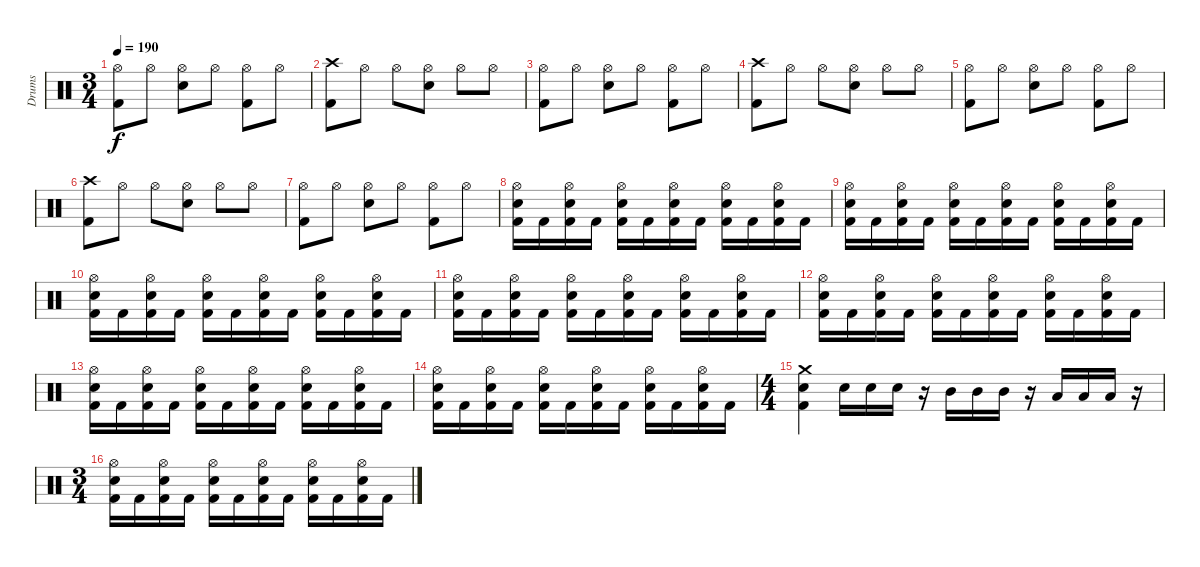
\track ("Drums" "Drums") {instrument percussion}
\staff {score}
\articulation defaults
\ts (3 4)
\tempo 190
\clef neutral
\ks c
("Hi-Hat (open)" "Kick (hit) 2").8{dy f} "Hi-Hat (open)".8 ("Hi-Hat (open)" "Electric Snare (hit)").8 "Hi-Hat (open)".8 ("Hi-Hat (open)" "Kick (hit) 2").8 "Hi-Hat (open)".8 |
("Crash high (hit)" "Kick (hit) 2").8 "Hi-Hat (open)".8 "Hi-Hat (open)".8 ("Hi-Hat (open)" "Electric Snare (hit)").8 "Hi-Hat (open)".8 "Hi-Hat (open)".8 |
("Hi-Hat (open)" "Kick (hit) 2").8 "Hi-Hat (open)".8 ("Hi-Hat (open)" "Electric Snare (hit)").8 "Hi-Hat (open)".8 ("Hi-Hat (open)" "Kick (hit) 2").8 "Hi-Hat (open)".8 |
("Crash high (hit)" "Kick (hit) 2").8 "Hi-Hat (open)".8 "Hi-Hat (open)".8 ("Hi-Hat (open)" "Electric Snare (hit)").8 "Hi-Hat (open)".8 "Hi-Hat (open)".8 |
("Hi-Hat (open)" "Kick (hit) 2").8 "Hi-Hat (open)".8 ("Hi-Hat (open)" "Electric Snare (hit)").8 "Hi-Hat (open)".8 ("Hi-Hat (open)" "Kick (hit) 2").8 "Hi-Hat (open)".8 |
("Crash high (hit)" "Kick (hit) 2").8 "Hi-Hat (open)".8 "Hi-Hat (open)".8 ("Hi-Hat (open)" "Electric Snare (hit)").8 "Hi-Hat (open)".8 "Hi-Hat (open)".8 |
("Hi-Hat (open)" "Kick (hit) 2").8 "Hi-Hat (open)".8 ("Hi-Hat (open)" "Electric Snare (hit)").8 "Hi-Hat (open)".8 ("Hi-Hat (open)" "Kick (hit) 2").8 "Hi-Hat (open)".8 |
("Hi-Hat (open)" "Electric Snare (hit)" "Kick (hit) 2").16 "Kick (hit) 2".16 ("Hi-Hat (open)" "Electric Snare (hit)" "Kick (hit) 2").16 "Kick (hit) 2".16 ("Hi-Hat (open)" "Electric Snare (hit)" "Kick (hit) 2").16 "Kick (hit) 2".16 ("Hi-Hat (open)" "Electric Snare (hit)" "Kick (hit) 2").16 "Kick (hit) 2".16 ("Hi-Hat (open)" "Electric Snare (hit)" "Kick (hit) 2").16 "Kick (hit) 2".16 ("Hi-Hat (open)" "Electric Snare (hit)" "Kick (hit) 2").16 "Kick (hit) 2".16 |
("Hi-Hat (open)" "Electric Snare (hit)" "Kick (hit) 2").16 "Kick (hit) 2".16 ("Hi-Hat (open)" "Electric Snare (hit)" "Kick (hit) 2").16 "Kick (hit) 2".16 ("Hi-Hat (open)" "Electric Snare (hit)" "Kick (hit) 2").16 "Kick (hit) 2".16 ("Hi-Hat (open)" "Electric Snare (hit)" "Kick (hit) 2").16 "Kick (hit) 2".16 ("Hi-Hat (open)" "Electric Snare (hit)" "Kick (hit) 2").16 "Kick (hit) 2".16 ("Hi-Hat (open)" "Electric Snare (hit)" "Kick (hit) 2").16 "Kick (hit) 2".16 |
("Hi-Hat (open)" "Electric Snare (hit)" "Kick (hit) 2").16 "Kick (hit) 2".16 ("Hi-Hat (open)" "Electric Snare (hit)" "Kick (hit) 2").16 "Kick (hit) 2".16 ("Hi-Hat (open)" "Electric Snare (hit)" "Kick (hit) 2").16 "Kick (hit) 2".16 ("Hi-Hat (open)" "Electric Snare (hit)" "Kick (hit) 2").16 "Kick (hit) 2".16 ("Hi-Hat (open)" "Electric Snare (hit)" "Kick (hit) 2").16 "Kick (hit) 2".16 ("Hi-Hat (open)" "Electric Snare (hit)" "Kick (hit) 2").16 "Kick (hit) 2".16 |
("Hi-Hat (open)" "Electric Snare (hit)" "Kick (hit) 2").16 "Kick (hit) 2".16 ("Hi-Hat (open)" "Electric Snare (hit)" "Kick (hit) 2").16 "Kick (hit) 2".16 ("Hi-Hat (open)" "Electric Snare (hit)" "Kick (hit) 2").16 "Kick (hit) 2".16 ("Hi-Hat (open)" "Electric Snare (hit)" "Kick (hit) 2").16 "Kick (hit) 2".16 ("Hi-Hat (open)" "Electric Snare (hit)" "Kick (hit) 2").16 "Kick (hit) 2".16 ("Hi-Hat (open)" "Electric Snare (hit)" "Kick (hit) 2").16 "Kick (hit) 2".16 |
("Hi-Hat (open)" "Electric Snare (hit)" "Kick (hit) 2").16 "Kick (hit) 2".16 ("Hi-Hat (open)" "Electric Snare (hit)" "Kick (hit) 2").16 "Kick (hit) 2".16 ("Hi-Hat (open)" "Electric Snare (hit)" "Kick (hit) 2").16 "Kick (hit) 2".16 ("Hi-Hat (open)" "Electric Snare (hit)" "Kick (hit) 2").16 "Kick (hit) 2".16 ("Hi-Hat (open)" "Electric Snare (hit)" "Kick (hit) 2").16 "Kick (hit) 2".16 ("Hi-Hat (open)" "Electric Snare (hit)" "Kick (hit) 2").16 "Kick (hit) 2".16 |
("Hi-Hat (open)" "Electric Snare (hit)" "Kick (hit) 2").16 "Kick (hit) 2".16 ("Hi-Hat (open)" "Electric Snare (hit)" "Kick (hit) 2").16 "Kick (hit) 2".16 ("Hi-Hat (open)" "Electric Snare (hit)" "Kick (hit) 2").16 "Kick (hit) 2".16 ("Hi-Hat (open)" "Electric Snare (hit)" "Kick (hit) 2").16 "Kick (hit) 2".16 ("Hi-Hat (open)" "Electric Snare (hit)" "Kick (hit) 2").16 "Kick (hit) 2".16 ("Hi-Hat (open)" "Electric Snare (hit)" "Kick (hit) 2").16 "Kick (hit) 2".16 |
("Hi-Hat (open)" "Electric Snare (hit)" "Kick (hit) 2").16 "Kick (hit) 2".16 ("Hi-Hat (open)" "Electric Snare (hit)" "Kick (hit) 2").16 "Kick (hit) 2".16 ("Hi-Hat (open)" "Electric Snare (hit)" "Kick (hit) 2").16 "Kick (hit) 2".16 ("Hi-Hat (open)" "Electric Snare (hit)" "Kick (hit) 2").16 "Kick (hit) 2".16 ("Hi-Hat (open)" "Electric Snare (hit)" "Kick (hit) 2").16 "Kick (hit) 2".16 ("Hi-Hat (open)" "Electric Snare (hit)" "Kick (hit) 2").16 "Kick (hit) 2".16 |
\ts (4 4)
("Crash medium (hit)" "Electric Snare (hit)" "Kick (hit) 2").4 "Electric Snare (hit)".16 "Electric Snare (hit)".16 "Electric Snare (hit)".16 r.16 "Mid Tom (hit)".16 "Mid Tom (hit)".16 "Mid Tom (hit)".16 r.16 "Low Tom (hit)".16 "Low Tom (hit)".16 "Low Tom (hit)".16 r.16 |
\ts (3 4)
("Hi-Hat (open)" "Electric Snare (hit)" "Kick (hit) 2").16 "Kick (hit) 2".16 ("Hi-Hat (open)" "Electric Snare (hit)" "Kick (hit) 2").16 "Kick (hit) 2".16 ("Hi-Hat (open)" "Electric Snare (hit)" "Kick (hit) 2").16 "Kick (hit) 2".16 ("Hi-Hat (open)" "Electric Snare (hit)" "Kick (hit) 2").16 "Kick (hit) 2".16 ("Hi-Hat (open)" "Electric Snare (hit)" "Kick (hit) 2").16 "Kick (hit) 2".16 ("Hi-Hat (open)" "Electric Snare (hit)" "Kick (hit) 2").16 "Kick (hit) 2".16
